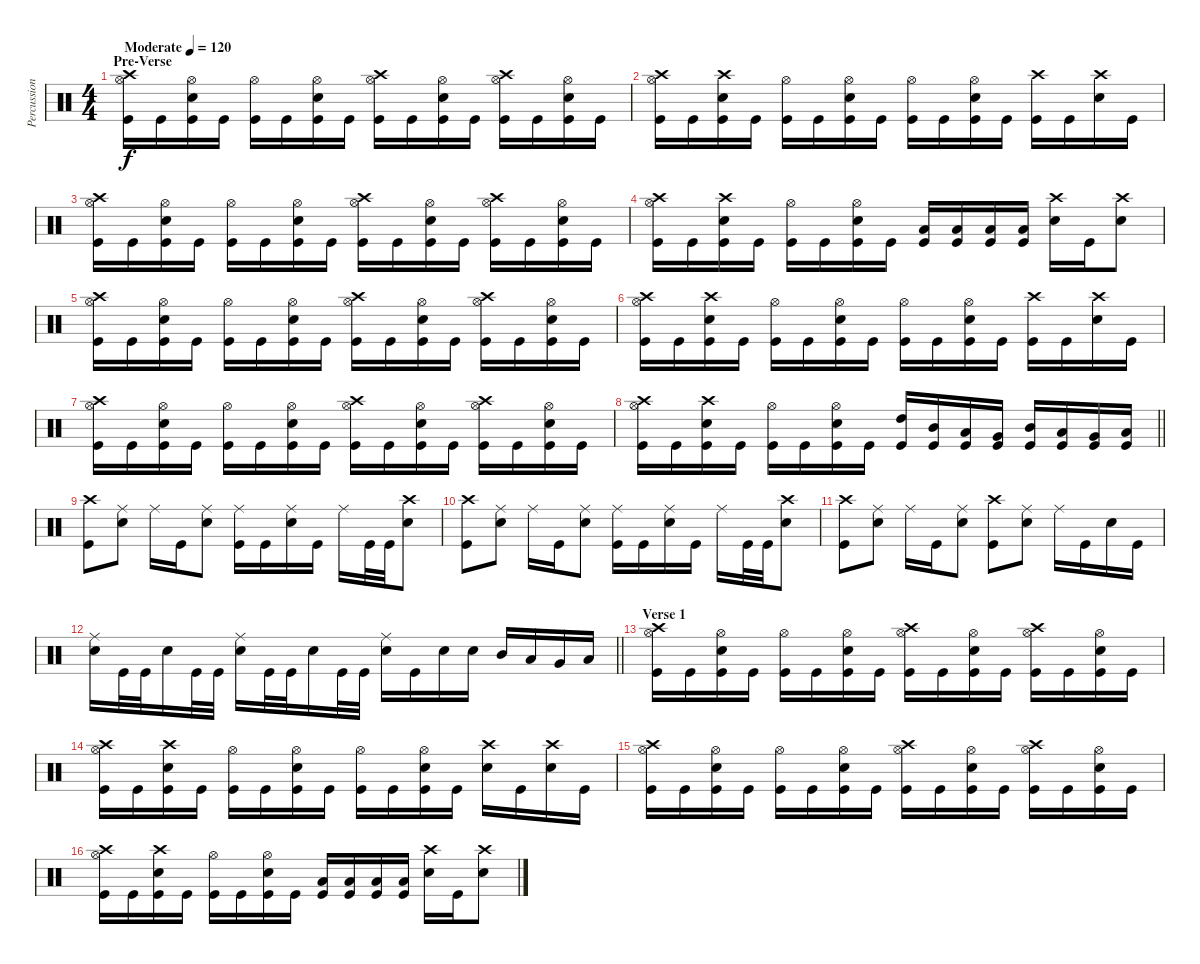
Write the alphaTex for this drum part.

\track ("Percussion" "Percussion") {instrument percussion}
\staff {score}
\articulation defaults
\ts (4 4)
\section ("" "Pre-Verse")
\tempo (120 "Moderate")
\clef neutral
\ks c
("Crash high (hit)" "Hi-Hat (open)" "Kick (hit)").16{dy f} "Kick (hit)".16 ("Hi-Hat (open)" "Snare (hit) 2" "Kick (hit)").16 "Kick (hit)".16 ("Hi-Hat (open)" "Kick (hit)").16 "Kick (hit)".16 ("Hi-Hat (open)" "Snare (hit) 2" "Kick (hit)").16 "Kick (hit)".16 ("Crash high (hit)" "Hi-Hat (open)" "Kick (hit)").16 "Kick (hit)".16 ("Hi-Hat (open)" "Snare (hit) 2" "Kick (hit)").16 "Kick (hit)".16 ("Crash high (hit)" "Hi-Hat (open)" "Kick (hit)").16 "Kick (hit)".16 ("Hi-Hat (open)" "Snare (hit) 2" "Kick (hit)").16 "Kick (hit)".16 |
("Crash high (hit)" "Hi-Hat (open)" "Kick (hit)").16 "Kick (hit)".16 ("Crash high (hit)" "Snare (hit) 2" "Kick (hit)").16 "Kick (hit)".16 ("Hi-Hat (open)" "Kick (hit)").16 "Kick (hit)".16 ("Hi-Hat (open)" "Snare (hit) 2" "Kick (hit)").16 "Kick (hit)".16 ("Hi-Hat (open)" "Kick (hit)").16 "Kick (hit)".16 ("Hi-Hat (open)" "Snare (hit) 2" "Kick (hit)").16 "Kick (hit)".16 ("Crash high (hit)" "Kick (hit)").16 "Kick (hit)".16 ("Crash high (hit)" "Snare (hit) 2").16 "Kick (hit)".16 |
("Crash high (hit)" "Hi-Hat (open)" "Kick (hit)").16 "Kick (hit)".16 ("Hi-Hat (open)" "Snare (hit) 2" "Kick (hit)").16 "Kick (hit)".16 ("Hi-Hat (open)" "Kick (hit)").16 "Kick (hit)".16 ("Hi-Hat (open)" "Snare (hit) 2" "Kick (hit)").16 "Kick (hit)".16 ("Crash high (hit)" "Hi-Hat (open)" "Kick (hit)").16 "Kick (hit)".16 ("Hi-Hat (open)" "Snare (hit) 2" "Kick (hit)").16 "Kick (hit)".16 ("Crash high (hit)" "Hi-Hat (open)" "Kick (hit)").16 "Kick (hit)".16 ("Hi-Hat (open)" "Snare (hit) 2" "Kick (hit)").16 "Kick (hit)".16 |
("Crash high (hit)" "Hi-Hat (open)" "Kick (hit)").16 "Kick (hit)".16 ("Crash high (hit)" "Snare (hit) 2" "Kick (hit)").16 "Kick (hit)".16 ("Hi-Hat (open)" "Kick (hit)").16 "Kick (hit)".16 ("Hi-Hat (open)" "Snare (hit) 2" "Kick (hit)").16 "Kick (hit)".16 ("Low Floor Tom (hit)" "Kick (hit)").16 ("Low Floor Tom (hit)" "Kick (hit)").16 ("Low Floor Tom (hit)" "Kick (hit)").16 ("Low Floor Tom (hit)" "Kick (hit)").16 ("Crash high (hit)" "Snare (hit) 2").16 "Kick (hit)".16 ("Crash high (hit)" "Snare (hit) 2").8 |
("Crash high (hit)" "Hi-Hat (open)" "Kick (hit)").16 "Kick (hit)".16 ("Hi-Hat (open)" "Snare (hit) 2" "Kick (hit)").16 "Kick (hit)".16 ("Hi-Hat (open)" "Kick (hit)").16 "Kick (hit)".16 ("Hi-Hat (open)" "Snare (hit) 2" "Kick (hit)").16 "Kick (hit)".16 ("Crash high (hit)" "Hi-Hat (open)" "Kick (hit)").16 "Kick (hit)".16 ("Hi-Hat (open)" "Snare (hit) 2" "Kick (hit)").16 "Kick (hit)".16 ("Crash high (hit)" "Hi-Hat (open)" "Kick (hit)").16 "Kick (hit)".16 ("Hi-Hat (open)" "Snare (hit) 2" "Kick (hit)").16 "Kick (hit)".16 |
("Crash high (hit)" "Hi-Hat (open)" "Kick (hit)").16 "Kick (hit)".16 ("Crash high (hit)" "Snare (hit) 2" "Kick (hit)").16 "Kick (hit)".16 ("Hi-Hat (open)" "Kick (hit)").16 "Kick (hit)".16 ("Hi-Hat (open)" "Snare (hit) 2" "Kick (hit)").16 "Kick (hit)".16 ("Hi-Hat (open)" "Kick (hit)").16 "Kick (hit)".16 ("Hi-Hat (open)" "Snare (hit) 2" "Kick (hit)").16 "Kick (hit)".16 ("Crash high (hit)" "Kick (hit)").16 "Kick (hit)".16 ("Crash high (hit)" "Snare (hit) 2").16 "Kick (hit)".16 |
("Crash high (hit)" "Hi-Hat (open)" "Kick (hit)").16 "Kick (hit)".16 ("Hi-Hat (open)" "Snare (hit) 2" "Kick (hit)").16 "Kick (hit)".16 ("Hi-Hat (open)" "Kick (hit)").16 "Kick (hit)".16 ("Hi-Hat (open)" "Snare (hit) 2" "Kick (hit)").16 "Kick (hit)".16 ("Crash high (hit)" "Hi-Hat (open)" "Kick (hit)").16 "Kick (hit)".16 ("Hi-Hat (open)" "Snare (hit) 2" "Kick (hit)").16 "Kick (hit)".16 ("Crash high (hit)" "Hi-Hat (open)" "Kick (hit)").16 "Kick (hit)".16 ("Hi-Hat (open)" "Snare (hit) 2" "Kick (hit)").16 "Kick (hit)".16 |
\barLineRight lightlight
("Crash high (hit)" "Hi-Hat (open)" "Kick (hit)").16 "Kick (hit)".16 ("Crash high (hit)" "Snare (hit) 2" "Kick (hit)").16 "Kick (hit)".16 ("Hi-Hat (open)" "Kick (hit)").16 "Kick (hit)".16 ("Hi-Hat (open)" "Snare (hit) 2" "Kick (hit)").16 "Kick (hit)".16 ("High Tom (hit)" "Kick (hit)").16 ("Mid Tom (hit)" "Kick (hit)").16 ("Low Tom (hit)" "Kick (hit)").16 ("Very Low Tom (hit)" "Kick (hit)").16 ("Mid Tom (hit)" "Kick (hit)").16 ("Low Tom (hit)" "Kick (hit)").16 ("Very Low Tom (hit)" "Kick (hit)").16 ("Low Floor Tom (hit)" "Kick (hit)").16 |
("Crash high (hit)" "Kick (hit)").8 ("Ride (middle)" "Snare (hit) 2").8 "Ride (middle)".16 "Kick (hit)".16 ("Ride (middle)" "Snare (hit) 2").8 ("Ride (middle)" "Kick (hit)").16 "Kick (hit)".16 ("Ride (middle)" "Snare (hit) 2").16 "Kick (hit)".16 "Ride (middle)".16 "Kick (hit)".32 "Kick (hit)".32 ("Crash high (hit)" "Snare (hit) 2").8 |
("Crash high (hit)" "Kick (hit)").8 ("Ride (middle)" "Snare (hit) 2").8 "Ride (middle)".16 "Kick (hit)".16 ("Ride (middle)" "Snare (hit) 2").8 ("Ride (middle)" "Kick (hit)").16 "Kick (hit)".16 ("Ride (middle)" "Snare (hit) 2").16 "Kick (hit)".16 "Ride (middle)".16 "Kick (hit)".32 "Kick (hit)".32 ("Crash high (hit)" "Snare (hit) 2").8 |
("Crash high (hit)" "Kick (hit)").8 ("Ride (middle)" "Snare (hit) 2").8 "Ride (middle)".16 "Kick (hit)".16 ("Ride (middle)" "Snare (hit) 2").8 ("Crash high (hit)" "Kick (hit)").8 ("Ride (middle)" "Snare (hit) 2").8 "Ride (middle)".16 "Kick (hit)".16 "Snare (hit) 2".16 "Kick (hit)".16 |
\barLineRight lightlight
("Ride (middle)" "Snare (hit) 2").16 "Kick (hit)".32 "Kick (hit)".32 "Snare (hit) 2".16 "Kick (hit)".32 "Kick (hit)".32 ("Ride (middle)" "Snare (hit) 2").16 "Kick (hit)".32 "Kick (hit)".32 "Snare (hit) 2".16 "Kick (hit)".32 "Kick (hit)".32 ("Ride (middle)" "Snare (hit) 2").16 "Kick (hit)".16 "Snare (hit) 2".16 "Snare (hit) 2".16 "Mid Tom (hit)".16 "Low Tom (hit)".16 "Very Low Tom (hit)".16 "Low Floor Tom (hit)".16 |
\section ("" "Verse 1")
("Crash high (hit)" "Hi-Hat (open)" "Kick (hit)").16 "Kick (hit)".16 ("Hi-Hat (open)" "Snare (hit) 2" "Kick (hit)").16 "Kick (hit)".16 ("Hi-Hat (open)" "Kick (hit)").16 "Kick (hit)".16 ("Hi-Hat (open)" "Snare (hit) 2" "Kick (hit)").16 "Kick (hit)".16 ("Crash high (hit)" "Hi-Hat (open)" "Kick (hit)").16 "Kick (hit)".16 ("Hi-Hat (open)" "Snare (hit) 2" "Kick (hit)").16 "Kick (hit)".16 ("Crash high (hit)" "Hi-Hat (open)" "Kick (hit)").16 "Kick (hit)".16 ("Hi-Hat (open)" "Snare (hit) 2" "Kick (hit)").16 "Kick (hit)".16 |
("Crash high (hit)" "Hi-Hat (open)" "Kick (hit)").16 "Kick (hit)".16 ("Crash high (hit)" "Snare (hit) 2" "Kick (hit)").16 "Kick (hit)".16 ("Hi-Hat (open)" "Kick (hit)").16 "Kick (hit)".16 ("Hi-Hat (open)" "Snare (hit) 2" "Kick (hit)").16 "Kick (hit)".16 ("Hi-Hat (open)" "Kick (hit)").16 "Kick (hit)".16 ("Hi-Hat (open)" "Snare (hit) 2" "Kick (hit)").16 "Kick (hit)".16 ("Crash high (hit)" "Snare (hit) 2").16 "Kick (hit)".16 ("Crash high (hit)" "Snare (hit) 2").16 "Kick (hit)".16 |
("Crash high (hit)" "Hi-Hat (open)" "Kick (hit)").16 "Kick (hit)".16 ("Hi-Hat (open)" "Snare (hit) 2" "Kick (hit)").16 "Kick (hit)".16 ("Hi-Hat (open)" "Kick (hit)").16 "Kick (hit)".16 ("Hi-Hat (open)" "Snare (hit) 2" "Kick (hit)").16 "Kick (hit)".16 ("Crash high (hit)" "Hi-Hat (open)" "Kick (hit)").16 "Kick (hit)".16 ("Hi-Hat (open)" "Snare (hit) 2" "Kick (hit)").16 "Kick (hit)".16 ("Crash high (hit)" "Hi-Hat (open)" "Kick (hit)").16 "Kick (hit)".16 ("Hi-Hat (open)" "Snare (hit) 2" "Kick (hit)").16 "Kick (hit)".16 |
("Crash high (hit)" "Hi-Hat (open)" "Kick (hit)").16 "Kick (hit)".16 ("Crash high (hit)" "Snare (hit) 2" "Kick (hit)").16 "Kick (hit)".16 ("Hi-Hat (open)" "Kick (hit)").16 "Kick (hit)".16 ("Hi-Hat (open)" "Snare (hit) 2" "Kick (hit)").16 "Kick (hit)".16 ("Low Floor Tom (hit)" "Kick (hit)").16 ("Low Floor Tom (hit)" "Kick (hit)").16 ("Low Floor Tom (hit)" "Kick (hit)").16 ("Low Floor Tom (hit)" "Kick (hit)").16 ("Crash high (hit)" "Snare (hit) 2").16 "Kick (hit)".16 ("Crash high (hit)" "Snare (hit) 2").8
